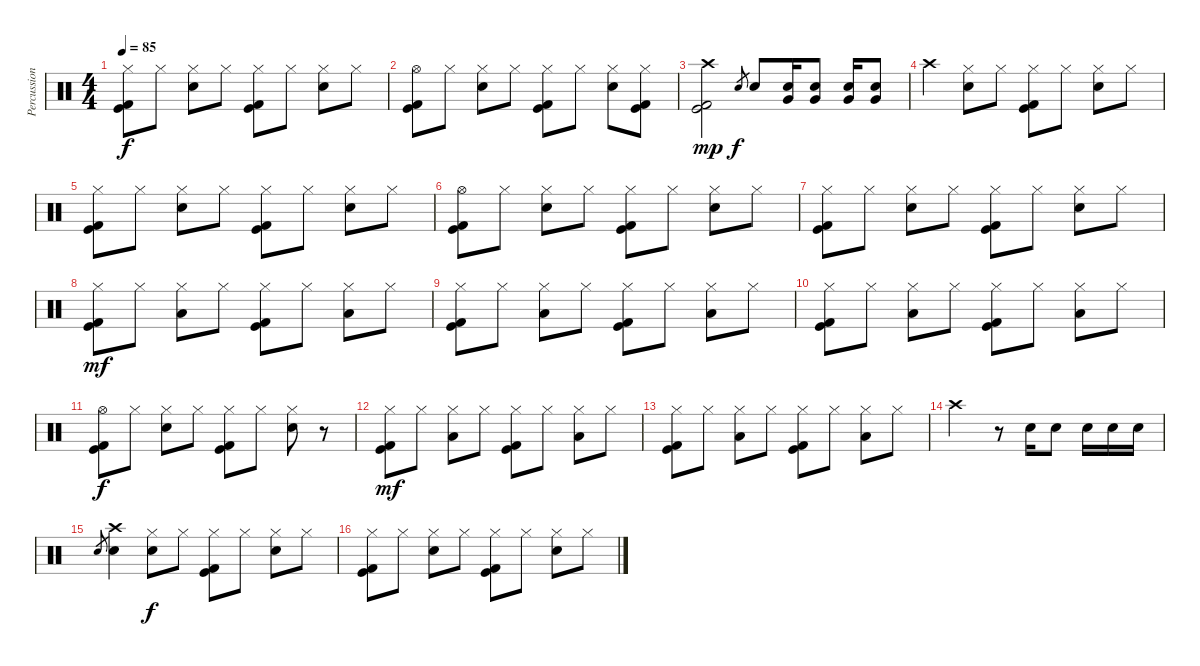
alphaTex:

\track ("Percussion" "Percussion") {instrument percussion}
\staff {score}
\articulation defaults
\ts (4 4)
\tempo 85
\clef neutral
\ks c
("Hi-Hat (closed)" "Kick (hit)" "Kick (hit) 2").8{dy f} "Hi-Hat (closed)".8 ("Hi-Hat (closed)" "Snare (hit) 2").8 "Hi-Hat (closed)".8 ("Hi-Hat (closed)" "Kick (hit)" "Kick (hit) 2").8 "Hi-Hat (closed)".8 ("Hi-Hat (closed)" "Snare (hit) 2").8 "Hi-Hat (closed)".8 |
("Hi-Hat (open)" "Kick (hit)" "Kick (hit) 2").8 "Hi-Hat (closed)".8 ("Hi-Hat (closed)" "Snare (hit) 2").8 "Hi-Hat (closed)".8 ("Hi-Hat (closed)" "Kick (hit)" "Kick (hit) 2").8 "Hi-Hat (closed)".8 ("Hi-Hat (closed)" "Snare (hit) 2").8 ("Hi-Hat (closed)" "Kick (hit)" "Kick (hit) 2").8 |
("Crash high (hit)" "Kick (hit)" "Kick (hit) 2").2{dy mp} "Snare (hit) 2".8{gr dy f} "Snare (hit) 2".8 ("Snare (hit) 2" "Very Low Tom (hit)").16 ("Snare (hit) 2" "Very Low Tom (hit)").8 ("Snare (hit) 2" "Very Low Tom (hit)").16 ("Snare (hit) 2" "Very Low Tom (hit)").8 |
"Crash high (hit)".4 ("Hi-Hat (closed)" "Snare (hit) 2").8 "Hi-Hat (closed)".8 ("Hi-Hat (closed)" "Kick (hit)" "Kick (hit) 2").8 "Hi-Hat (closed)".8 ("Hi-Hat (closed)" "Snare (hit) 2").8 "Hi-Hat (closed)".8 |
("Hi-Hat (closed)" "Kick (hit)" "Kick (hit) 2").8 "Hi-Hat (closed)".8 ("Hi-Hat (closed)" "Snare (hit) 2").8 "Hi-Hat (closed)".8 ("Hi-Hat (closed)" "Kick (hit)" "Kick (hit) 2").8 "Hi-Hat (closed)".8 ("Hi-Hat (closed)" "Snare (hit) 2").8 "Hi-Hat (closed)".8 |
("Hi-Hat (open)" "Kick (hit)" "Kick (hit) 2").8 "Hi-Hat (closed)".8 ("Hi-Hat (closed)" "Snare (hit) 2").8 "Hi-Hat (closed)".8 ("Hi-Hat (closed)" "Kick (hit)" "Kick (hit) 2").8 "Hi-Hat (closed)".8 ("Hi-Hat (closed)" "Snare (hit) 2").8 "Hi-Hat (closed)".8 |
("Hi-Hat (closed)" "Kick (hit)" "Kick (hit) 2").8 "Hi-Hat (closed)".8 ("Hi-Hat (closed)" "Snare (hit) 2").8 "Hi-Hat (closed)".8 ("Hi-Hat (closed)" "Kick (hit)" "Kick (hit) 2").8 "Hi-Hat (closed)".8 ("Hi-Hat (closed)" "Snare (hit) 2").8 "Hi-Hat (closed)".8 |
("Hi-Hat (closed)" "Kick (hit)" "Kick (hit) 2").8{dy mf} "Hi-Hat (closed)".8 ("Hi-Hat (closed)" "Low Floor Tom (hit)").8 "Hi-Hat (closed)".8 ("Hi-Hat (closed)" "Kick (hit)" "Kick (hit) 2").8 "Hi-Hat (closed)".8 ("Hi-Hat (closed)" "Low Floor Tom (hit)").8 "Hi-Hat (closed)".8 |
("Hi-Hat (closed)" "Kick (hit)" "Kick (hit) 2").8 "Hi-Hat (closed)".8 ("Hi-Hat (closed)" "Low Floor Tom (hit)").8 "Hi-Hat (closed)".8 ("Hi-Hat (closed)" "Kick (hit)" "Kick (hit) 2").8 "Hi-Hat (closed)".8 ("Hi-Hat (closed)" "Low Floor Tom (hit)").8 "Hi-Hat (closed)".8 |
("Hi-Hat (closed)" "Kick (hit)" "Kick (hit) 2").8 "Hi-Hat (closed)".8 ("Hi-Hat (closed)" "Low Floor Tom (hit)").8 "Hi-Hat (closed)".8 ("Hi-Hat (closed)" "Kick (hit)" "Kick (hit) 2").8 "Hi-Hat (closed)".8 ("Hi-Hat (closed)" "Low Floor Tom (hit)").8 "Hi-Hat (closed)".8 |
("Hi-Hat (open)" "Kick (hit)" "Kick (hit) 2").8{dy f} "Hi-Hat (closed)".8 ("Hi-Hat (closed)" "Snare (hit) 2").8 "Hi-Hat (closed)".8 ("Hi-Hat (closed)" "Kick (hit)" "Kick (hit) 2").8 "Hi-Hat (closed)".8 ("Hi-Hat (closed)" "Snare (hit) 2").8 r.8 |
("Hi-Hat (closed)" "Kick (hit)" "Kick (hit) 2").8{dy mf} "Hi-Hat (closed)".8 ("Hi-Hat (closed)" "Low Floor Tom (hit)").8 "Hi-Hat (closed)".8 ("Hi-Hat (closed)" "Kick (hit)" "Kick (hit) 2").8 "Hi-Hat (closed)".8 ("Hi-Hat (closed)" "Low Floor Tom (hit)").8 "Hi-Hat (closed)".8 |
("Hi-Hat (closed)" "Kick (hit)" "Kick (hit) 2").8 "Hi-Hat (closed)".8 ("Hi-Hat (closed)" "Low Floor Tom (hit)").8 "Hi-Hat (closed)".8 ("Hi-Hat (closed)" "Kick (hit)" "Kick (hit) 2").8 "Hi-Hat (closed)".8 ("Hi-Hat (closed)" "Low Floor Tom (hit)").8 "Hi-Hat (closed)".8 |
"Crash high (hit)".2 r.8 "Snare (hit) 2".16 "Snare (hit) 2".8 "Snare (hit) 2".16 "Snare (hit) 2".16 "Snare (hit) 2".16 |
"Snare (hit) 2".8{gr} ("Crash high (hit)" "Snare (hit) 2").4 ("Hi-Hat (closed)" "Snare (hit) 2").8{dy f} "Hi-Hat (closed)".8 ("Hi-Hat (closed)" "Kick (hit)" "Kick (hit) 2").8 "Hi-Hat (closed)".8 ("Hi-Hat (closed)" "Snare (hit) 2").8 "Hi-Hat (closed)".8 |
("Hi-Hat (closed)" "Kick (hit)" "Kick (hit) 2").8 "Hi-Hat (closed)".8 ("Hi-Hat (closed)" "Snare (hit) 2").8 "Hi-Hat (closed)".8 ("Hi-Hat (closed)" "Kick (hit)" "Kick (hit) 2").8 "Hi-Hat (closed)".8 ("Hi-Hat (closed)" "Snare (hit) 2").8 "Hi-Hat (closed)".8
